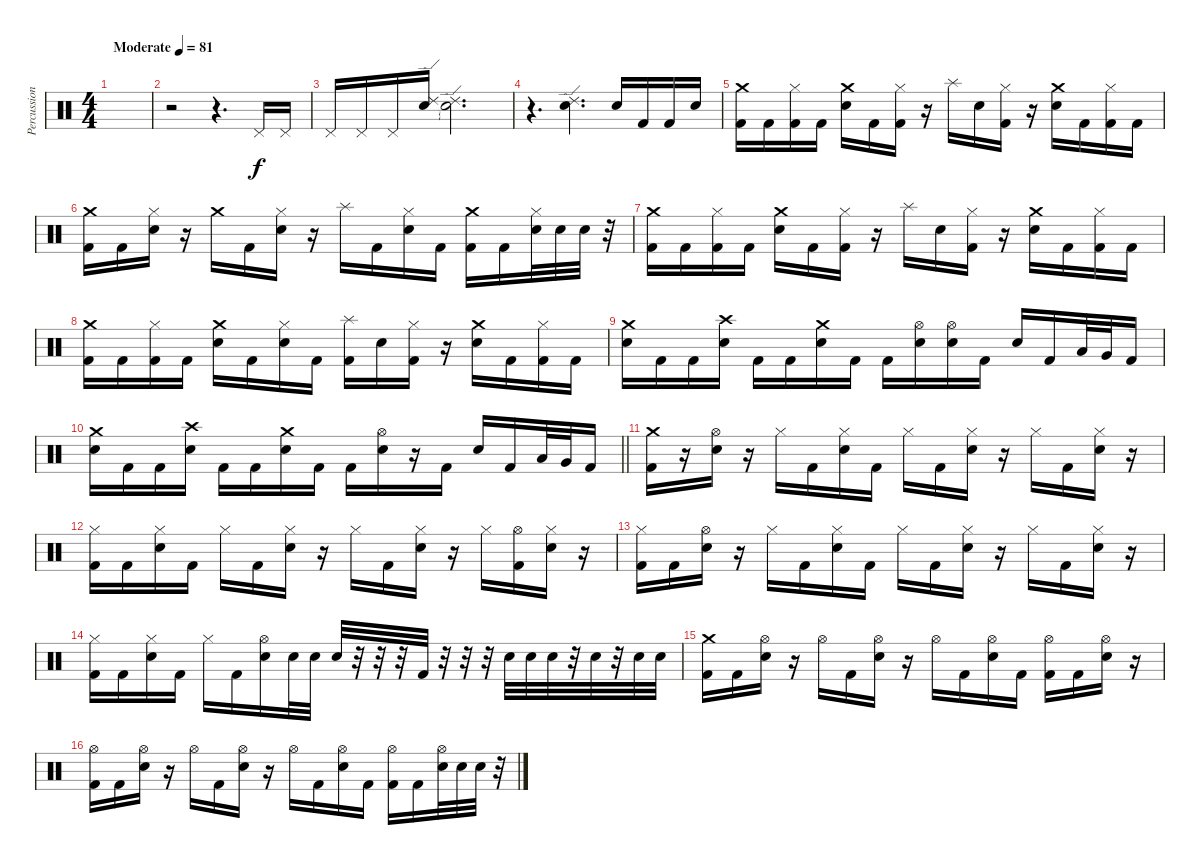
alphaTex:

\track ("Percussions" "Percussion") {instrument percussion}
\staff {score}
\articulation defaults
\ts (4 4)
\tempo (81 "Moderate")
\clef neutral
\ks c
|
r.2 r.4{d} "Pedal Hi-Hat (hit)".16 "Pedal Hi-Hat (hit)".16 |
"Pedal Hi-Hat (hit)".16 "Pedal Hi-Hat (hit)".16 "Pedal Hi-Hat (hit)".16 ("Ride (edge) 2" "Electric Snare (hit)").16 ("Ride (edge) 2"{t} "Electric Snare (hit)"{t}).2{d} |
r.4{d} ("Ride (edge) 2" "Electric Snare (hit)").4{d} "Electric Snare (hit)".16 "Kick (hit) 2".16 "Kick (hit) 2".16 "Electric Snare (hit)".16 |
("Crash medium (hit)" "Kick (hit) 2").16 "Kick (hit) 2".16 ("Hi-Hat (closed)" "Kick (hit) 2").16 "Kick (hit) 2".16 ("Crash medium (hit)" "Electric Snare (hit)").16 "Kick (hit) 2".16 ("Hi-Hat (closed)" "Kick (hit) 2").16 r.16 "Splash (hit)".16 "Electric Snare (hit)".16 ("Hi-Hat (closed)" "Kick (hit) 2").16 r.16 ("Crash medium (hit)" "Electric Snare (hit)").16 "Kick (hit) 2".16 ("Hi-Hat (closed)" "Kick (hit) 2").16 "Kick (hit) 2".16 |
("Crash medium (hit)" "Kick (hit) 2").16 "Kick (hit) 2".16 ("Hi-Hat (closed)" "Electric Snare (hit)").16 r.16 "Crash medium (hit)".16 "Kick (hit) 2".16 ("Hi-Hat (closed)" "Electric Snare (hit)").16 r.16 "Splash (hit)".16 "Kick (hit) 2".16 ("Hi-Hat (closed)" "Electric Snare (hit)").16 "Kick (hit) 2".16 ("Crash medium (hit)" "Kick (hit) 2").16 "Kick (hit) 2".16 ("Hi-Hat (closed)" "Electric Snare (hit)").32 "Electric Snare (hit)".32 "Electric Snare (hit)".32 r.32 |
("Crash medium (hit)" "Kick (hit) 2").16 "Kick (hit) 2".16 ("Hi-Hat (closed)" "Kick (hit) 2").16 "Kick (hit) 2".16 ("Crash medium (hit)" "Electric Snare (hit)").16 "Kick (hit) 2".16 ("Hi-Hat (closed)" "Kick (hit) 2").16 r.16 "Splash (hit)".16 "Electric Snare (hit)".16 ("Hi-Hat (closed)" "Kick (hit) 2").16 r.16 ("Crash medium (hit)" "Electric Snare (hit)").16 "Kick (hit) 2".16 ("Hi-Hat (closed)" "Kick (hit) 2").16 "Kick (hit) 2".16 |
("Crash medium (hit)" "Kick (hit) 2").16 "Kick (hit) 2".16 ("Hi-Hat (closed)" "Kick (hit) 2").16 "Kick (hit) 2".16 ("Crash medium (hit)" "Electric Snare (hit)").16 "Kick (hit) 2".16 ("Hi-Hat (closed)" "Electric Snare (hit)").16 "Kick (hit) 2".16 ("Splash (hit)" "Kick (hit) 2").16 "Electric Snare (hit)".16 ("Hi-Hat (closed)" "Kick (hit) 2").16 r.16 ("Crash medium (hit)" "Electric Snare (hit)").16 "Kick (hit) 2".16 ("Hi-Hat (closed)" "Kick (hit) 2").16 "Kick (hit) 2".16 |
("Crash medium (hit)" "Electric Snare (hit)").16 "Kick (hit) 2".16 "Kick (hit) 2".16 ("Crash high (hit)" "Electric Snare (hit)").16 "Kick (hit) 2".16 "Kick (hit) 2".16 ("Crash medium (hit)" "Electric Snare (hit)").16 "Kick (hit) 2".16 "Kick (hit) 2".16 ("Hi-Hat (open)" "Electric Snare (hit)").16 ("Hi-Hat (open)" "Electric Snare (hit)").16 "Kick (hit) 2".16 "Electric Snare (hit)".16 "Kick (hit) 2".16 "Low Floor Tom (hit)".32 "Very Low Tom (hit)".32 "Kick (hit) 2".16 |
\barLineRight lightlight
("Crash medium (hit)" "Electric Snare (hit)").16 "Kick (hit) 2".16 "Kick (hit) 2".16 ("Crash high (hit)" "Electric Snare (hit)").16 "Kick (hit) 2".16 "Kick (hit) 2".16 ("Crash medium (hit)" "Electric Snare (hit)").16 "Kick (hit) 2".16 "Kick (hit) 2".16 ("Hi-Hat (open)" "Electric Snare (hit)").16 r.16 "Kick (hit) 2".16 "Electric Snare (hit)".16 "Kick (hit) 2".16 "Low Floor Tom (hit)".32 "Very Low Tom (hit)".32 "Kick (hit) 2".16 |
("Crash medium (hit)" "Kick (hit) 2").16 r.16 ("Hi-Hat (open)" "Electric Snare (hit)").16 r.16 "Hi-Hat (closed)".16 "Kick (hit) 2".16 ("Hi-Hat (closed)" "Electric Snare (hit)").16 "Kick (hit) 2".16 "Hi-Hat (closed)".16 "Kick (hit) 2".16 ("Hi-Hat (closed)" "Electric Snare (hit)").16 r.16 "Hi-Hat (closed)".16 "Kick (hit) 2".16 ("Hi-Hat (closed)" "Electric Snare (hit)").16 r.16 |
("Hi-Hat (closed)" "Kick (hit) 2").16 "Kick (hit) 2".16 ("Hi-Hat (closed)" "Electric Snare (hit)").16 "Kick (hit) 2".16 "Hi-Hat (closed)".16 "Kick (hit) 2".16 ("Hi-Hat (closed)" "Electric Snare (hit)").16 r.16 "Hi-Hat (closed)".16 "Kick (hit) 2".16 ("Hi-Hat (closed)" "Electric Snare (hit)").16 r.16 "Hi-Hat (closed)".16 ("Hi-Hat (open)" "Kick (hit) 2").16 ("Hi-Hat (closed)" "Electric Snare (hit)").16 r.16 |
("Hi-Hat (closed)" "Kick (hit) 2").16 "Kick (hit) 2".16 ("Hi-Hat (open)" "Electric Snare (hit)").16 r.16 "Hi-Hat (closed)".16 "Kick (hit) 2".16 ("Hi-Hat (closed)" "Electric Snare (hit)").16 "Kick (hit) 2".16 "Hi-Hat (closed)".16 "Kick (hit) 2".16 ("Hi-Hat (closed)" "Electric Snare (hit)").16 r.16 "Hi-Hat (closed)".16 "Kick (hit) 2".16 ("Hi-Hat (closed)" "Electric Snare (hit)").16 r.16 |
("Hi-Hat (closed)" "Kick (hit) 2").16 "Kick (hit) 2".16 ("Hi-Hat (closed)" "Electric Snare (hit)").16 "Kick (hit) 2".16 "Hi-Hat (closed)".16 "Kick (hit) 2".16 ("Hi-Hat (open)" "Electric Snare (hit)").16 "Electric Snare (hit)".32 "Electric Snare (hit)".32 "Electric Snare (hit)".32 r.32 r.32 r.32 "Kick (hit) 2".32 r.32 r.32 r.32 "Electric Snare (hit)".32 "Electric Snare (hit)".32 "Electric Snare (hit)".32 r.32 "Electric Snare (hit)".32 r.32 "Electric Snare (hit)".32 "Electric Snare (hit)".32 |
("Crash medium (hit)" "Kick (hit) 2").16 "Kick (hit) 2".16 ("Hi-Hat (open)" "Electric Snare (hit)").16 r.16 "Hi-Hat (open)".16 "Kick (hit) 2".16 ("Hi-Hat (open)" "Electric Snare (hit)").16 r.16 "Hi-Hat (open)".16 "Kick (hit) 2".16 ("Hi-Hat (open)" "Electric Snare (hit)").16 "Kick (hit) 2".16 ("Hi-Hat (open)" "Kick (hit) 2").16 "Kick (hit) 2".16 ("Hi-Hat (open)" "Electric Snare (hit)").16 r.16 |
("Hi-Hat (open)" "Kick (hit) 2").16 "Kick (hit) 2".16 ("Hi-Hat (open)" "Electric Snare (hit)").16 r.16 "Hi-Hat (open)".16 "Kick (hit) 2".16 ("Hi-Hat (open)" "Electric Snare (hit)").16 r.16 "Hi-Hat (open)".16 "Kick (hit) 2".16 ("Hi-Hat (open)" "Electric Snare (hit)").16 "Kick (hit) 2".16 ("Hi-Hat (open)" "Kick (hit) 2").16 "Kick (hit) 2".16 ("Hi-Hat (open)" "Electric Snare (hit)").32 "Electric Snare (hit)".32 "Electric Snare (hit)".32 r.32
